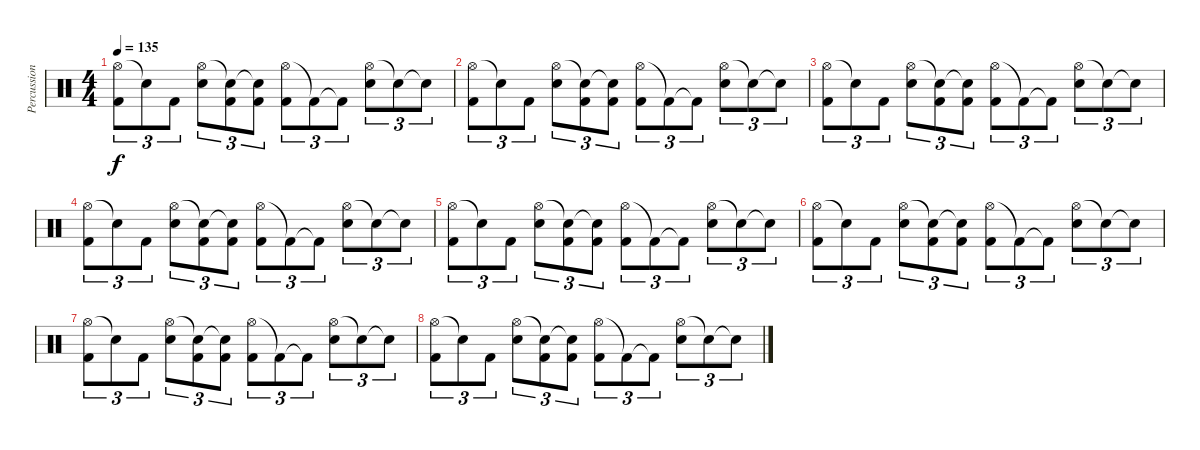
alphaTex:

\track ("Percussions" "Percussion") {instrument percussion}
\staff {score}
\articulation defaults
\ts (4 4)
\tempo 135
\clef neutral
\ks c
("Hi-Hat (open)" "Kick (hit) 2").8{tu (3 2) dy f} "Snare (hit)"{t}.8{tu (3 2)} "Kick (hit) 2".8{tu (3 2)} ("Hi-Hat (open)" "Snare (hit) 2").8{tu (3 2)} ("Snare (hit)"{t} "Kick (hit) 2").8{tu (3 2)} ("Snare (hit)"{t} "Kick (hit) 2").8{tu (3 2)} ("Hi-Hat (open)" "Kick (hit) 2").8{tu (3 2)} "Kick (hit) 2"{t}.8{tu (3 2)} "Kick (hit) 2"{t}.8{tu (3 2)} ("Hi-Hat (open)" "Snare (hit) 2").8{tu (3 2)} "Snare (hit)"{t}.8{tu (3 2)} "Snare (hit)"{t}.8{tu (3 2)} |
("Hi-Hat (open)" "Kick (hit) 2").8{tu (3 2)} "Snare (hit)"{t}.8{tu (3 2)} "Kick (hit) 2".8{tu (3 2)} ("Hi-Hat (open)" "Snare (hit) 2").8{tu (3 2)} ("Snare (hit)"{t} "Kick (hit) 2").8{tu (3 2)} ("Snare (hit)"{t} "Kick (hit) 2").8{tu (3 2)} ("Hi-Hat (open)" "Kick (hit) 2").8{tu (3 2)} "Kick (hit) 2"{t}.8{tu (3 2)} "Kick (hit) 2"{t}.8{tu (3 2)} ("Hi-Hat (open)" "Snare (hit) 2").8{tu (3 2)} "Snare (hit)"{t}.8{tu (3 2)} "Snare (hit)"{t}.8{tu (3 2)} |
("Hi-Hat (open)" "Kick (hit) 2").8{tu (3 2)} "Snare (hit)"{t}.8{tu (3 2)} "Kick (hit) 2".8{tu (3 2)} ("Hi-Hat (open)" "Snare (hit) 2").8{tu (3 2)} ("Snare (hit)"{t} "Kick (hit) 2").8{tu (3 2)} ("Snare (hit)"{t} "Kick (hit) 2").8{tu (3 2)} ("Hi-Hat (open)" "Kick (hit) 2").8{tu (3 2)} "Kick (hit) 2"{t}.8{tu (3 2)} "Kick (hit) 2"{t}.8{tu (3 2)} ("Hi-Hat (open)" "Snare (hit) 2").8{tu (3 2)} "Snare (hit)"{t}.8{tu (3 2)} "Snare (hit)"{t}.8{tu (3 2)} |
("Hi-Hat (open)" "Kick (hit) 2").8{tu (3 2)} "Snare (hit)"{t}.8{tu (3 2)} "Kick (hit) 2".8{tu (3 2)} ("Hi-Hat (open)" "Snare (hit) 2").8{tu (3 2)} ("Snare (hit)"{t} "Kick (hit) 2").8{tu (3 2)} ("Snare (hit)"{t} "Kick (hit) 2").8{tu (3 2)} ("Hi-Hat (open)" "Kick (hit) 2").8{tu (3 2)} "Kick (hit) 2"{t}.8{tu (3 2)} "Kick (hit) 2"{t}.8{tu (3 2)} ("Hi-Hat (open)" "Snare (hit) 2").8{tu (3 2)} "Snare (hit)"{t}.8{tu (3 2)} "Snare (hit)"{t}.8{tu (3 2)} |
("Hi-Hat (open)" "Kick (hit) 2").8{tu (3 2)} "Snare (hit)"{t}.8{tu (3 2)} "Kick (hit) 2".8{tu (3 2)} ("Hi-Hat (open)" "Snare (hit) 2").8{tu (3 2)} ("Snare (hit)"{t} "Kick (hit) 2").8{tu (3 2)} ("Snare (hit)"{t} "Kick (hit) 2").8{tu (3 2)} ("Hi-Hat (open)" "Kick (hit) 2").8{tu (3 2)} "Kick (hit) 2"{t}.8{tu (3 2)} "Kick (hit) 2"{t}.8{tu (3 2)} ("Hi-Hat (open)" "Snare (hit) 2").8{tu (3 2)} "Snare (hit)"{t}.8{tu (3 2)} "Snare (hit)"{t}.8{tu (3 2)} |
("Hi-Hat (open)" "Kick (hit) 2").8{tu (3 2)} "Snare (hit)"{t}.8{tu (3 2)} "Kick (hit) 2".8{tu (3 2)} ("Hi-Hat (open)" "Snare (hit) 2").8{tu (3 2)} ("Snare (hit)"{t} "Kick (hit) 2").8{tu (3 2)} ("Snare (hit)"{t} "Kick (hit) 2").8{tu (3 2)} ("Hi-Hat (open)" "Kick (hit) 2").8{tu (3 2)} "Kick (hit) 2"{t}.8{tu (3 2)} "Kick (hit) 2"{t}.8{tu (3 2)} ("Hi-Hat (open)" "Snare (hit) 2").8{tu (3 2)} "Snare (hit)"{t}.8{tu (3 2)} "Snare (hit)"{t}.8{tu (3 2)} |
("Hi-Hat (open)" "Kick (hit) 2").8{tu (3 2)} "Snare (hit)"{t}.8{tu (3 2)} "Kick (hit) 2".8{tu (3 2)} ("Hi-Hat (open)" "Snare (hit) 2").8{tu (3 2)} ("Snare (hit)"{t} "Kick (hit) 2").8{tu (3 2)} ("Snare (hit)"{t} "Kick (hit) 2").8{tu (3 2)} ("Hi-Hat (open)" "Kick (hit) 2").8{tu (3 2)} "Kick (hit) 2"{t}.8{tu (3 2)} "Kick (hit) 2"{t}.8{tu (3 2)} ("Hi-Hat (open)" "Snare (hit) 2").8{tu (3 2)} "Snare (hit)"{t}.8{tu (3 2)} "Snare (hit)"{t}.8{tu (3 2)} |
("Hi-Hat (open)" "Kick (hit) 2").8{tu (3 2)} "Snare (hit)"{t}.8{tu (3 2)} "Kick (hit) 2".8{tu (3 2)} ("Hi-Hat (open)" "Snare (hit) 2").8{tu (3 2)} ("Snare (hit)"{t} "Kick (hit) 2").8{tu (3 2)} ("Snare (hit)"{t} "Kick (hit) 2").8{tu (3 2)} ("Hi-Hat (open)" "Kick (hit) 2").8{tu (3 2)} "Kick (hit) 2"{t}.8{tu (3 2)} "Kick (hit) 2"{t}.8{tu (3 2)} ("Hi-Hat (open)" "Snare (hit) 2").8{tu (3 2)} "Snare (hit)"{t}.8{tu (3 2)} "Snare (hit)"{t}.8{tu (3 2)}
